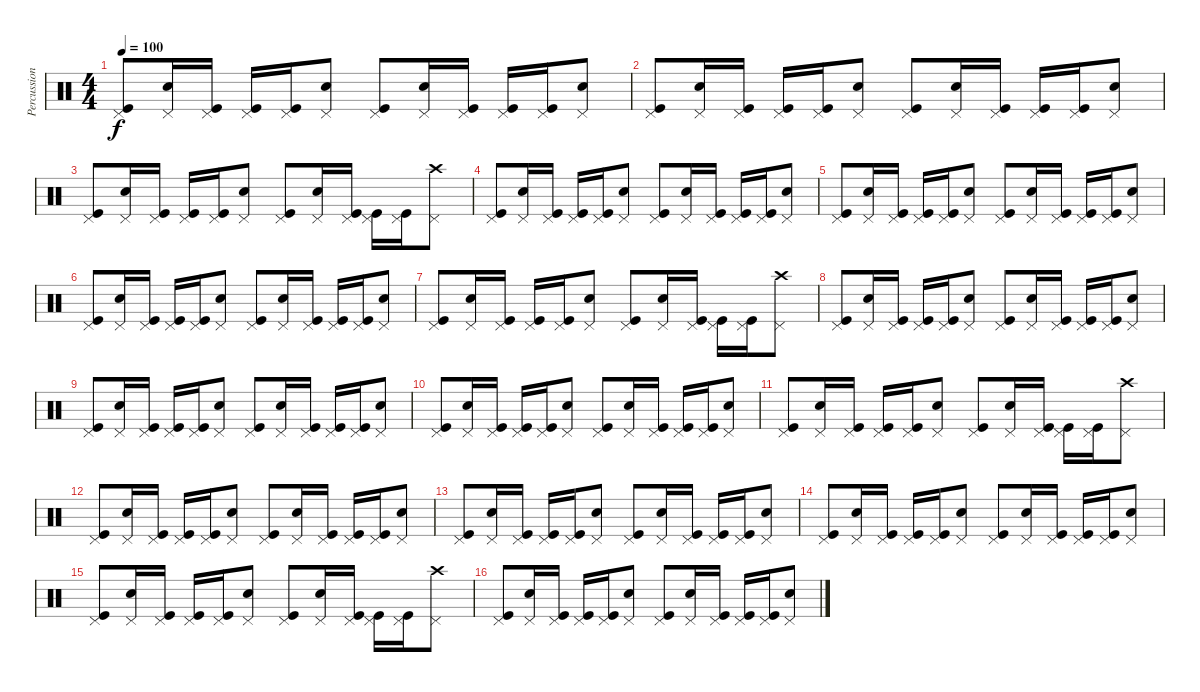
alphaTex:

\track ("Percussion" "Percussion") {instrument percussion}
\staff {score}
\articulation defaults
\ts (4 4)
\tempo 100
\clef neutral
\ks c
("Kick (hit)" "Pedal Hi-Hat (hit)").8{dy f} ("Snare (hit) 2" "Pedal Hi-Hat (hit)").16 ("Kick (hit)" "Pedal Hi-Hat (hit)").16 ("Kick (hit)" "Pedal Hi-Hat (hit)").16 ("Kick (hit)" "Pedal Hi-Hat (hit)").16 ("Snare (hit) 2" "Pedal Hi-Hat (hit)").8 ("Kick (hit)" "Pedal Hi-Hat (hit)").8 ("Snare (hit) 2" "Pedal Hi-Hat (hit)").16 ("Kick (hit)" "Pedal Hi-Hat (hit)").16 ("Kick (hit)" "Pedal Hi-Hat (hit)").16 ("Kick (hit)" "Pedal Hi-Hat (hit)").16 ("Snare (hit) 2" "Pedal Hi-Hat (hit)").8 |
("Kick (hit)" "Pedal Hi-Hat (hit)").8 ("Snare (hit) 2" "Pedal Hi-Hat (hit)").16 ("Kick (hit)" "Pedal Hi-Hat (hit)").16 ("Kick (hit)" "Pedal Hi-Hat (hit)").16 ("Kick (hit)" "Pedal Hi-Hat (hit)").16 ("Snare (hit) 2" "Pedal Hi-Hat (hit)").8 ("Kick (hit)" "Pedal Hi-Hat (hit)").8 ("Snare (hit) 2" "Pedal Hi-Hat (hit)").16 ("Kick (hit)" "Pedal Hi-Hat (hit)").16 ("Kick (hit)" "Pedal Hi-Hat (hit)").16 ("Kick (hit)" "Pedal Hi-Hat (hit)").16 ("Snare (hit) 2" "Pedal Hi-Hat (hit)").8 |
("Kick (hit)" "Pedal Hi-Hat (hit)").8 ("Snare (hit) 2" "Pedal Hi-Hat (hit)").16 ("Kick (hit)" "Pedal Hi-Hat (hit)").16 ("Kick (hit)" "Pedal Hi-Hat (hit)").16 ("Kick (hit)" "Pedal Hi-Hat (hit)").16 ("Snare (hit) 2" "Pedal Hi-Hat (hit)").8 ("Kick (hit)" "Pedal Hi-Hat (hit)").8 ("Snare (hit) 2" "Pedal Hi-Hat (hit)").16 ("Kick (hit)" "Pedal Hi-Hat (hit)").16 ("Kick (hit)" "Pedal Hi-Hat (hit)").16 ("Kick (hit)" "Pedal Hi-Hat (hit)").16 ("Crash high (hit)" "Pedal Hi-Hat (hit)").8 |
("Kick (hit)" "Pedal Hi-Hat (hit)").8 ("Snare (hit) 2" "Pedal Hi-Hat (hit)").16 ("Kick (hit)" "Pedal Hi-Hat (hit)").16 ("Kick (hit)" "Pedal Hi-Hat (hit)").16 ("Kick (hit)" "Pedal Hi-Hat (hit)").16 ("Snare (hit) 2" "Pedal Hi-Hat (hit)").8 ("Kick (hit)" "Pedal Hi-Hat (hit)").8 ("Snare (hit) 2" "Pedal Hi-Hat (hit)").16 ("Kick (hit)" "Pedal Hi-Hat (hit)").16 ("Kick (hit)" "Pedal Hi-Hat (hit)").16 ("Kick (hit)" "Pedal Hi-Hat (hit)").16 ("Snare (hit) 2" "Pedal Hi-Hat (hit)").8 |
("Kick (hit)" "Pedal Hi-Hat (hit)").8 ("Snare (hit) 2" "Pedal Hi-Hat (hit)").16 ("Kick (hit)" "Pedal Hi-Hat (hit)").16 ("Kick (hit)" "Pedal Hi-Hat (hit)").16 ("Kick (hit)" "Pedal Hi-Hat (hit)").16 ("Snare (hit) 2" "Pedal Hi-Hat (hit)").8 ("Kick (hit)" "Pedal Hi-Hat (hit)").8 ("Snare (hit) 2" "Pedal Hi-Hat (hit)").16 ("Kick (hit)" "Pedal Hi-Hat (hit)").16 ("Kick (hit)" "Pedal Hi-Hat (hit)").16 ("Kick (hit)" "Pedal Hi-Hat (hit)").16 ("Snare (hit) 2" "Pedal Hi-Hat (hit)").8 |
("Kick (hit)" "Pedal Hi-Hat (hit)").8 ("Snare (hit) 2" "Pedal Hi-Hat (hit)").16 ("Kick (hit)" "Pedal Hi-Hat (hit)").16 ("Kick (hit)" "Pedal Hi-Hat (hit)").16 ("Kick (hit)" "Pedal Hi-Hat (hit)").16 ("Snare (hit) 2" "Pedal Hi-Hat (hit)").8 ("Kick (hit)" "Pedal Hi-Hat (hit)").8 ("Snare (hit) 2" "Pedal Hi-Hat (hit)").16 ("Kick (hit)" "Pedal Hi-Hat (hit)").16 ("Kick (hit)" "Pedal Hi-Hat (hit)").16 ("Kick (hit)" "Pedal Hi-Hat (hit)").16 ("Snare (hit) 2" "Pedal Hi-Hat (hit)").8 |
("Kick (hit)" "Pedal Hi-Hat (hit)").8 ("Snare (hit) 2" "Pedal Hi-Hat (hit)").16 ("Kick (hit)" "Pedal Hi-Hat (hit)").16 ("Kick (hit)" "Pedal Hi-Hat (hit)").16 ("Kick (hit)" "Pedal Hi-Hat (hit)").16 ("Snare (hit) 2" "Pedal Hi-Hat (hit)").8 ("Kick (hit)" "Pedal Hi-Hat (hit)").8 ("Snare (hit) 2" "Pedal Hi-Hat (hit)").16 ("Kick (hit)" "Pedal Hi-Hat (hit)").16 ("Kick (hit)" "Pedal Hi-Hat (hit)").16 ("Kick (hit)" "Pedal Hi-Hat (hit)").16 ("Crash high (hit)" "Pedal Hi-Hat (hit)").8 |
("Kick (hit)" "Pedal Hi-Hat (hit)").8 ("Snare (hit) 2" "Pedal Hi-Hat (hit)").16 ("Kick (hit)" "Pedal Hi-Hat (hit)").16 ("Kick (hit)" "Pedal Hi-Hat (hit)").16 ("Kick (hit)" "Pedal Hi-Hat (hit)").16 ("Snare (hit) 2" "Pedal Hi-Hat (hit)").8 ("Kick (hit)" "Pedal Hi-Hat (hit)").8 ("Snare (hit) 2" "Pedal Hi-Hat (hit)").16 ("Kick (hit)" "Pedal Hi-Hat (hit)").16 ("Kick (hit)" "Pedal Hi-Hat (hit)").16 ("Kick (hit)" "Pedal Hi-Hat (hit)").16 ("Snare (hit) 2" "Pedal Hi-Hat (hit)").8 |
("Kick (hit)" "Pedal Hi-Hat (hit)").8 ("Snare (hit) 2" "Pedal Hi-Hat (hit)").16 ("Kick (hit)" "Pedal Hi-Hat (hit)").16 ("Kick (hit)" "Pedal Hi-Hat (hit)").16 ("Kick (hit)" "Pedal Hi-Hat (hit)").16 ("Snare (hit) 2" "Pedal Hi-Hat (hit)").8 ("Kick (hit)" "Pedal Hi-Hat (hit)").8 ("Snare (hit) 2" "Pedal Hi-Hat (hit)").16 ("Kick (hit)" "Pedal Hi-Hat (hit)").16 ("Kick (hit)" "Pedal Hi-Hat (hit)").16 ("Kick (hit)" "Pedal Hi-Hat (hit)").16 ("Snare (hit) 2" "Pedal Hi-Hat (hit)").8 |
("Kick (hit)" "Pedal Hi-Hat (hit)").8 ("Snare (hit) 2" "Pedal Hi-Hat (hit)").16 ("Kick (hit)" "Pedal Hi-Hat (hit)").16 ("Kick (hit)" "Pedal Hi-Hat (hit)").16 ("Kick (hit)" "Pedal Hi-Hat (hit)").16 ("Snare (hit) 2" "Pedal Hi-Hat (hit)").8 ("Kick (hit)" "Pedal Hi-Hat (hit)").8 ("Snare (hit) 2" "Pedal Hi-Hat (hit)").16 ("Kick (hit)" "Pedal Hi-Hat (hit)").16 ("Kick (hit)" "Pedal Hi-Hat (hit)").16 ("Kick (hit)" "Pedal Hi-Hat (hit)").16 ("Snare (hit) 2" "Pedal Hi-Hat (hit)").8 |
("Kick (hit)" "Pedal Hi-Hat (hit)").8 ("Snare (hit) 2" "Pedal Hi-Hat (hit)").16 ("Kick (hit)" "Pedal Hi-Hat (hit)").16 ("Kick (hit)" "Pedal Hi-Hat (hit)").16 ("Kick (hit)" "Pedal Hi-Hat (hit)").16 ("Snare (hit) 2" "Pedal Hi-Hat (hit)").8 ("Kick (hit)" "Pedal Hi-Hat (hit)").8 ("Snare (hit) 2" "Pedal Hi-Hat (hit)").16 ("Kick (hit)" "Pedal Hi-Hat (hit)").16 ("Kick (hit)" "Pedal Hi-Hat (hit)").16 ("Kick (hit)" "Pedal Hi-Hat (hit)").16 ("Crash high (hit)" "Pedal Hi-Hat (hit)").8 |
("Kick (hit)" "Pedal Hi-Hat (hit)").8 ("Snare (hit) 2" "Pedal Hi-Hat (hit)").16 ("Kick (hit)" "Pedal Hi-Hat (hit)").16 ("Kick (hit)" "Pedal Hi-Hat (hit)").16 ("Kick (hit)" "Pedal Hi-Hat (hit)").16 ("Snare (hit) 2" "Pedal Hi-Hat (hit)").8 ("Kick (hit)" "Pedal Hi-Hat (hit)").8 ("Snare (hit) 2" "Pedal Hi-Hat (hit)").16 ("Kick (hit)" "Pedal Hi-Hat (hit)").16 ("Kick (hit)" "Pedal Hi-Hat (hit)").16 ("Kick (hit)" "Pedal Hi-Hat (hit)").16 ("Snare (hit) 2" "Pedal Hi-Hat (hit)").8 |
("Kick (hit)" "Pedal Hi-Hat (hit)").8 ("Snare (hit) 2" "Pedal Hi-Hat (hit)").16 ("Kick (hit)" "Pedal Hi-Hat (hit)").16 ("Kick (hit)" "Pedal Hi-Hat (hit)").16 ("Kick (hit)" "Pedal Hi-Hat (hit)").16 ("Snare (hit) 2" "Pedal Hi-Hat (hit)").8 ("Kick (hit)" "Pedal Hi-Hat (hit)").8 ("Snare (hit) 2" "Pedal Hi-Hat (hit)").16 ("Kick (hit)" "Pedal Hi-Hat (hit)").16 ("Kick (hit)" "Pedal Hi-Hat (hit)").16 ("Kick (hit)" "Pedal Hi-Hat (hit)").16 ("Snare (hit) 2" "Pedal Hi-Hat (hit)").8 |
("Kick (hit)" "Pedal Hi-Hat (hit)").8 ("Snare (hit) 2" "Pedal Hi-Hat (hit)").16 ("Kick (hit)" "Pedal Hi-Hat (hit)").16 ("Kick (hit)" "Pedal Hi-Hat (hit)").16 ("Kick (hit)" "Pedal Hi-Hat (hit)").16 ("Snare (hit) 2" "Pedal Hi-Hat (hit)").8 ("Kick (hit)" "Pedal Hi-Hat (hit)").8 ("Snare (hit) 2" "Pedal Hi-Hat (hit)").16 ("Kick (hit)" "Pedal Hi-Hat (hit)").16 ("Kick (hit)" "Pedal Hi-Hat (hit)").16 ("Kick (hit)" "Pedal Hi-Hat (hit)").16 ("Snare (hit) 2" "Pedal Hi-Hat (hit)").8 |
("Kick (hit)" "Pedal Hi-Hat (hit)").8 ("Snare (hit) 2" "Pedal Hi-Hat (hit)").16 ("Kick (hit)" "Pedal Hi-Hat (hit)").16 ("Kick (hit)" "Pedal Hi-Hat (hit)").16 ("Kick (hit)" "Pedal Hi-Hat (hit)").16 ("Snare (hit) 2" "Pedal Hi-Hat (hit)").8 ("Kick (hit)" "Pedal Hi-Hat (hit)").8 ("Snare (hit) 2" "Pedal Hi-Hat (hit)").16 ("Kick (hit)" "Pedal Hi-Hat (hit)").16 ("Kick (hit)" "Pedal Hi-Hat (hit)").16 ("Kick (hit)" "Pedal Hi-Hat (hit)").16 ("Crash high (hit)" "Pedal Hi-Hat (hit)").8 |
("Kick (hit)" "Pedal Hi-Hat (hit)").8 ("Snare (hit) 2" "Pedal Hi-Hat (hit)").16 ("Kick (hit)" "Pedal Hi-Hat (hit)").16 ("Kick (hit)" "Pedal Hi-Hat (hit)").16 ("Kick (hit)" "Pedal Hi-Hat (hit)").16 ("Snare (hit) 2" "Pedal Hi-Hat (hit)").8 ("Kick (hit)" "Pedal Hi-Hat (hit)").8 ("Snare (hit) 2" "Pedal Hi-Hat (hit)").16 ("Kick (hit)" "Pedal Hi-Hat (hit)").16 ("Kick (hit)" "Pedal Hi-Hat (hit)").16 ("Kick (hit)" "Pedal Hi-Hat (hit)").16 ("Snare (hit) 2" "Pedal Hi-Hat (hit)").8
